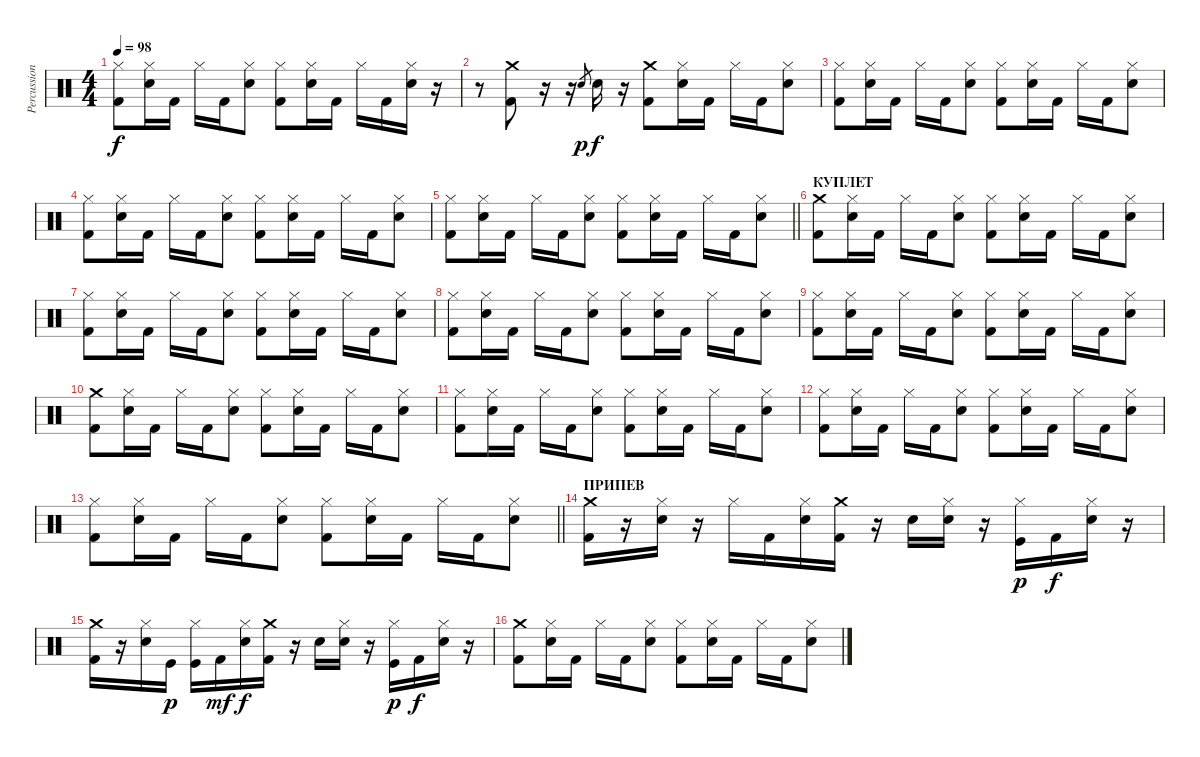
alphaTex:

\track ("Percussion" "Percussion") {instrument percussion}
\staff {score}
\articulation defaults
\ts (4 4)
\tempo 98
\clef neutral
\ks c
("Hi-Hat (closed)" "Kick (hit) 2").8{dy f} ("Hi-Hat (closed)" "Electric Snare (hit)").16 "Kick (hit) 2".16 "Hi-Hat (closed)".16 "Kick (hit) 2".16 ("Hi-Hat (closed)" "Electric Snare (hit)").8 ("Hi-Hat (closed)" "Kick (hit) 2").8 ("Hi-Hat (closed)" "Electric Snare (hit)").16 "Kick (hit) 2".16 "Hi-Hat (closed)".16 "Kick (hit) 2".16 ("Hi-Hat (closed)" "Electric Snare (hit)").16 r.16 |
r.8 ("Crash medium (hit)" "Kick (hit) 2").8 r.16 r.16 "Electric Snare (hit)".8{gr dy p} "Electric Snare (hit)".16{dy f} r.16 ("Crash medium (hit)" "Kick (hit) 2").8 ("Hi-Hat (closed)" "Electric Snare (hit)").16 "Kick (hit) 2".16 "Hi-Hat (closed)".16 "Kick (hit) 2".16 ("Hi-Hat (closed)" "Electric Snare (hit)").8 |
("Hi-Hat (closed)" "Kick (hit) 2").8 ("Hi-Hat (closed)" "Electric Snare (hit)").16 "Kick (hit) 2".16 "Hi-Hat (closed)".16 "Kick (hit) 2".16 ("Hi-Hat (closed)" "Electric Snare (hit)").8 ("Hi-Hat (closed)" "Kick (hit) 2").8 ("Hi-Hat (closed)" "Electric Snare (hit)").16 "Kick (hit) 2".16 "Hi-Hat (closed)".16 "Kick (hit) 2".16 ("Hi-Hat (closed)" "Electric Snare (hit)").8 |
("Hi-Hat (closed)" "Kick (hit) 2").8 ("Hi-Hat (closed)" "Electric Snare (hit)").16 "Kick (hit) 2".16 "Hi-Hat (closed)".16 "Kick (hit) 2".16 ("Hi-Hat (closed)" "Electric Snare (hit)").8 ("Hi-Hat (closed)" "Kick (hit) 2").8 ("Hi-Hat (closed)" "Electric Snare (hit)").16 "Kick (hit) 2".16 "Hi-Hat (closed)".16 "Kick (hit) 2".16 ("Hi-Hat (closed)" "Electric Snare (hit)").8 |
\barLineRight lightlight
("Hi-Hat (closed)" "Kick (hit) 2").8 ("Hi-Hat (closed)" "Electric Snare (hit)").16 "Kick (hit) 2".16 "Hi-Hat (closed)".16 "Kick (hit) 2".16 ("Hi-Hat (closed)" "Electric Snare (hit)").8 ("Hi-Hat (closed)" "Kick (hit) 2").8 ("Hi-Hat (closed)" "Electric Snare (hit)").16 "Kick (hit) 2".16 "Hi-Hat (closed)".16 "Kick (hit) 2".16 ("Hi-Hat (closed)" "Electric Snare (hit)").8 |
\section ("" "КУПЛЕТ")
("Crash medium (hit)" "Kick (hit) 2").8 ("Hi-Hat (closed)" "Electric Snare (hit)").16 "Kick (hit) 2".16 "Hi-Hat (closed)".16 "Kick (hit) 2".16 ("Hi-Hat (closed)" "Electric Snare (hit)").8 ("Hi-Hat (closed)" "Kick (hit) 2").8 ("Hi-Hat (closed)" "Electric Snare (hit)").16 "Kick (hit) 2".16 "Hi-Hat (closed)".16 "Kick (hit) 2".16 ("Hi-Hat (closed)" "Electric Snare (hit)").8 |
("Hi-Hat (closed)" "Kick (hit) 2").8 ("Hi-Hat (closed)" "Electric Snare (hit)").16 "Kick (hit) 2".16 "Hi-Hat (closed)".16 "Kick (hit) 2".16 ("Hi-Hat (closed)" "Electric Snare (hit)").8 ("Hi-Hat (closed)" "Kick (hit) 2").8 ("Hi-Hat (closed)" "Electric Snare (hit)").16 "Kick (hit) 2".16 "Hi-Hat (closed)".16 "Kick (hit) 2".16 ("Hi-Hat (closed)" "Electric Snare (hit)").8 |
("Hi-Hat (closed)" "Kick (hit) 2").8 ("Hi-Hat (closed)" "Electric Snare (hit)").16 "Kick (hit) 2".16 "Hi-Hat (closed)".16 "Kick (hit) 2".16 ("Hi-Hat (closed)" "Electric Snare (hit)").8 ("Hi-Hat (closed)" "Kick (hit) 2").8 ("Hi-Hat (closed)" "Electric Snare (hit)").16 "Kick (hit) 2".16 "Hi-Hat (closed)".16 "Kick (hit) 2".16 ("Hi-Hat (closed)" "Electric Snare (hit)").8 |
("Hi-Hat (closed)" "Kick (hit) 2").8 ("Hi-Hat (closed)" "Electric Snare (hit)").16 "Kick (hit) 2".16 "Hi-Hat (closed)".16 "Kick (hit) 2".16 ("Hi-Hat (closed)" "Electric Snare (hit)").8 ("Hi-Hat (closed)" "Kick (hit) 2").8 ("Hi-Hat (closed)" "Electric Snare (hit)").16 "Kick (hit) 2".16 "Hi-Hat (closed)".16 "Kick (hit) 2".16 ("Hi-Hat (closed)" "Electric Snare (hit)").8 |
("Crash medium (hit)" "Kick (hit) 2").8 ("Hi-Hat (closed)" "Electric Snare (hit)").16 "Kick (hit) 2".16 "Hi-Hat (closed)".16 "Kick (hit) 2".16 ("Hi-Hat (closed)" "Electric Snare (hit)").8 ("Hi-Hat (closed)" "Kick (hit) 2").8 ("Hi-Hat (closed)" "Electric Snare (hit)").16 "Kick (hit) 2".16 "Hi-Hat (closed)".16 "Kick (hit) 2".16 ("Hi-Hat (closed)" "Electric Snare (hit)").8 |
("Hi-Hat (closed)" "Kick (hit) 2").8 ("Hi-Hat (closed)" "Electric Snare (hit)").16 "Kick (hit) 2".16 "Hi-Hat (closed)".16 "Kick (hit) 2".16 ("Hi-Hat (closed)" "Electric Snare (hit)").8 ("Hi-Hat (closed)" "Kick (hit) 2").8 ("Hi-Hat (closed)" "Electric Snare (hit)").16 "Kick (hit) 2".16 "Hi-Hat (closed)".16 "Kick (hit) 2".16 ("Hi-Hat (closed)" "Electric Snare (hit)").8 |
("Hi-Hat (closed)" "Kick (hit) 2").8 ("Hi-Hat (closed)" "Electric Snare (hit)").16 "Kick (hit) 2".16 "Hi-Hat (closed)".16 "Kick (hit) 2".16 ("Hi-Hat (closed)" "Electric Snare (hit)").8 ("Hi-Hat (closed)" "Kick (hit) 2").8 ("Hi-Hat (closed)" "Electric Snare (hit)").16 "Kick (hit) 2".16 "Hi-Hat (closed)".16 "Kick (hit) 2".16 ("Hi-Hat (closed)" "Electric Snare (hit)").8 |
\barLineRight lightlight
("Hi-Hat (closed)" "Kick (hit) 2").8 ("Hi-Hat (closed)" "Electric Snare (hit)").16 "Kick (hit) 2".16 "Hi-Hat (closed)".16 "Kick (hit) 2".16 ("Hi-Hat (closed)" "Electric Snare (hit)").8 ("Hi-Hat (closed)" "Kick (hit) 2").8 ("Hi-Hat (closed)" "Electric Snare (hit)").16 "Kick (hit) 2".16 "Hi-Hat (closed)".16 "Kick (hit) 2".16 ("Hi-Hat (closed)" "Electric Snare (hit)").8 |
\section ("" "ПРИПЕВ")
("Crash medium (hit)" "Kick (hit) 2").16 r.16 ("Hi-Hat (closed)" "Electric Snare (hit)").16 r.16 "Hi-Hat (closed)".16 "Kick (hit) 2".16 ("Hi-Hat (closed)" "Electric Snare (hit)").16 ("Crash medium (hit)" "Kick (hit) 2").16 r.16 "Snare (hit)".16 ("Hi-Hat (closed)" "Electric Snare (hit)").16 r.16 ("Hi-Hat (closed)" "Kick (hit)").16{dy p} "Kick (hit) 2".16{dy f} ("Hi-Hat (closed)" "Electric Snare (hit)").16 r.16 |
("Crash medium (hit)" "Kick (hit) 2").16 r.16 ("Hi-Hat (closed)" "Electric Snare (hit)").16 "Kick (hit)".16{dy p} ("Hi-Hat (closed)" "Kick (hit)").16 "Kick (hit) 2".16{dy mf} ("Hi-Hat (closed)" "Electric Snare (hit)").16{dy f} ("Crash medium (hit)" "Kick (hit) 2").16 r.16 "Snare (hit)".16 ("Hi-Hat (closed)" "Electric Snare (hit)").16 r.16 ("Hi-Hat (closed)" "Kick (hit)").16{dy p} "Kick (hit) 2".16{dy f} ("Hi-Hat (closed)" "Electric Snare (hit)").16 r.16 |
("Crash medium (hit)" "Kick (hit) 2").8 ("Hi-Hat (closed)" "Electric Snare (hit)").16 "Kick (hit) 2".16 "Hi-Hat (closed)".16 "Kick (hit) 2".16 ("Hi-Hat (closed)" "Electric Snare (hit)").8 ("Hi-Hat (closed)" "Kick (hit) 2").8 ("Hi-Hat (closed)" "Electric Snare (hit)").16 "Kick (hit) 2".16 "Hi-Hat (closed)".16 "Kick (hit) 2".16 ("Hi-Hat (closed)" "Electric Snare (hit)").8
